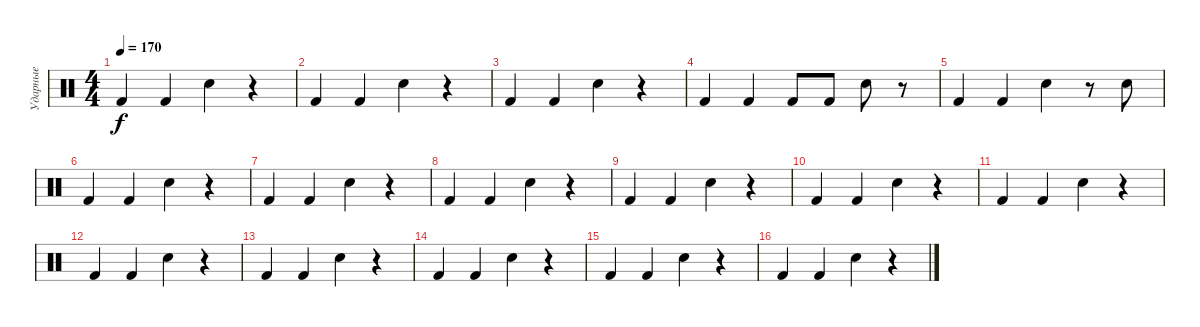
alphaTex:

\track ("Ударные" "Ударные") {instrument percussion}
\staff {score}
\articulation defaults
\ts (4 4)
\tempo 170
\clef neutral
\ks c "Kick (hit) 2".4{dy f} "Kick (hit) 2".4 "Snare (hit) 2".4
r.4 |
"Kick (hit) 2".4 "Kick (hit) 2".4 "Snare (hit) 2".4 r.4 |
"Kick (hit) 2".4 "Kick (hit) 2".4 "Snare (hit) 2".4 r.4 |
"Kick (hit) 2".4 "Kick (hit) 2".4 "Kick (hit) 2".8 "Kick (hit) 2".8 "Snare (hit) 2".8 r.8 |
"Kick (hit) 2".4 "Kick (hit) 2".4 "Snare (hit) 2".4 r.8 "Snare (hit) 2".8 |
"Kick (hit) 2".4 "Kick (hit) 2".4 "Snare (hit) 2".4 r.4 |
"Kick (hit) 2".4 "Kick (hit) 2".4 "Snare (hit) 2".4 r.4 |
"Kick (hit) 2".4 "Kick (hit) 2".4 "Snare (hit) 2".4 r.4 |
"Kick (hit) 2".4 "Kick (hit) 2".4 "Snare (hit) 2".4 r.4 |
"Kick (hit) 2".4 "Kick (hit) 2".4 "Snare (hit) 2".4 r.4 |
"Kick (hit) 2".4 "Kick (hit) 2".4 "Snare (hit) 2".4 r.4 |
"Kick (hit) 2".4 "Kick (hit) 2".4 "Snare (hit) 2".4 r.4 |
"Kick (hit) 2".4 "Kick (hit) 2".4 "Snare (hit) 2".4 r.4 |
"Kick (hit) 2".4 "Kick (hit) 2".4 "Snare (hit) 2".4 r.4 |
"Kick (hit) 2".4 "Kick (hit) 2".4 "Snare (hit) 2".4 r.4 |
"Kick (hit) 2".4 "Kick (hit) 2".4 "Snare (hit) 2".4 r.4
